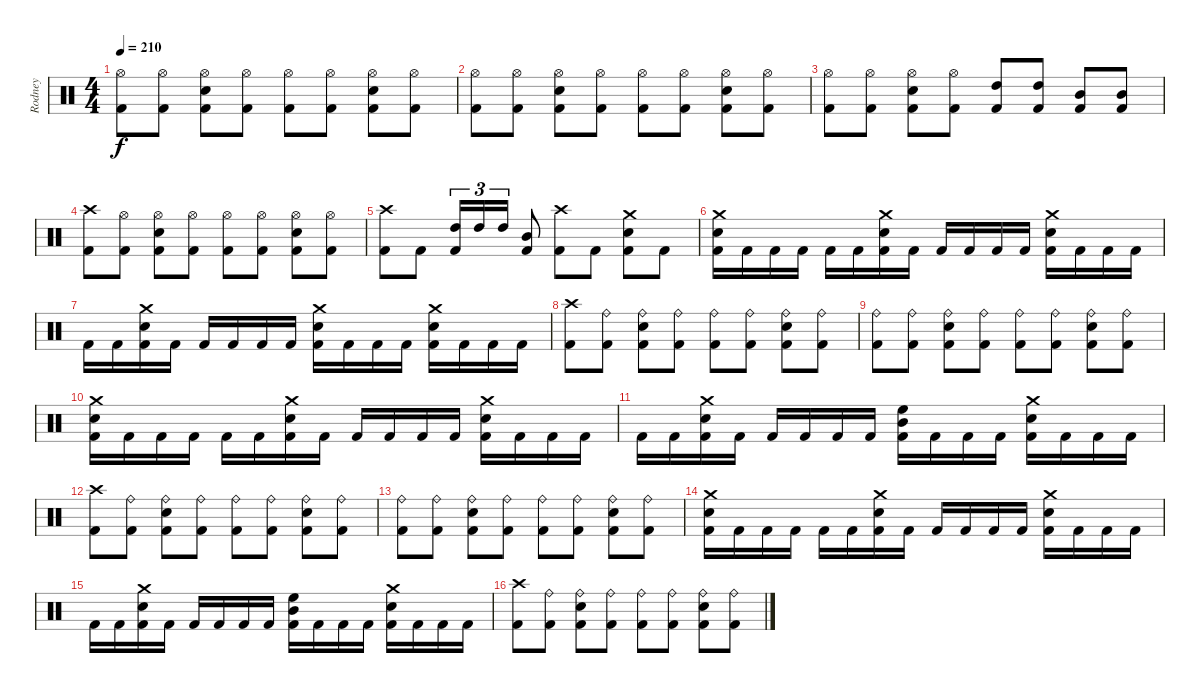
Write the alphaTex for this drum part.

\track ("Rodney" "Rodney") {instrument percussion}
\staff {score}
\articulation defaults
\ts (4 4)
\tempo 210
\clef neutral
\ks c
("Hi-Hat (open)" "Kick (hit) 2").8{dy f} ("Hi-Hat (open)" "Kick (hit) 2").8 ("Hi-Hat (open)" "Snare (hit) 2" "Kick (hit) 2").8 ("Hi-Hat (open)" "Kick (hit) 2").8 ("Hi-Hat (open)" "Kick (hit) 2").8 ("Hi-Hat (open)" "Kick (hit) 2").8 ("Hi-Hat (open)" "Snare (hit) 2" "Kick (hit) 2").8 ("Hi-Hat (open)" "Kick (hit) 2").8 |
("Hi-Hat (open)" "Kick (hit) 2").8 ("Hi-Hat (open)" "Kick (hit) 2").8 ("Hi-Hat (open)" "Snare (hit) 2" "Kick (hit) 2").8 ("Hi-Hat (open)" "Kick (hit) 2").8 ("Hi-Hat (open)" "Kick (hit) 2").8 ("Hi-Hat (open)" "Kick (hit) 2").8 ("Hi-Hat (open)" "Snare (hit) 2" "Kick (hit) 2").8 ("Hi-Hat (open)" "Kick (hit) 2").8 |
("Hi-Hat (open)" "Kick (hit) 2").8 ("Hi-Hat (open)" "Kick (hit) 2").8 ("Hi-Hat (open)" "Snare (hit) 2" "Kick (hit) 2").8 ("Hi-Hat (open)" "Kick (hit) 2").8 ("High Tom (hit)" "Kick (hit) 2").8 ("High Tom (hit)" "Kick (hit) 2").8 ("Mid Tom (hit)" "Kick (hit) 2").8 ("Mid Tom (hit)" "Kick (hit) 2").8 |
("Crash high (hit)" "Kick (hit) 2").8 ("Hi-Hat (open)" "Kick (hit) 2").8 ("Hi-Hat (open)" "Snare (hit) 2" "Kick (hit) 2").8 ("Hi-Hat (open)" "Kick (hit) 2").8 ("Hi-Hat (open)" "Kick (hit) 2").8 ("Hi-Hat (open)" "Kick (hit) 2").8 ("Hi-Hat (open)" "Snare (hit) 2" "Kick (hit) 2").8 ("Hi-Hat (open)" "Kick (hit) 2").8 |
("Crash high (hit)" "Kick (hit) 2").8 "Kick (hit) 2".8 ("High Tom (hit)" "Kick (hit) 2").16{tu (3 2)} "High Tom (hit)".16{tu (3 2)} "High Tom (hit)".16{tu (3 2)} ("Mid Tom (hit)" "Kick (hit) 2").8 ("Crash high (hit)" "Kick (hit) 2").8 "Kick (hit) 2".8 ("Crash medium (hit)" "Snare (hit) 2" "Kick (hit) 2").8 "Kick (hit) 2".8 |
("Crash medium (hit)" "Snare (hit) 2" "Kick (hit) 2").16 "Kick (hit) 2".16 "Kick (hit) 2".16 "Kick (hit) 2".16 "Kick (hit) 2".16 "Kick (hit) 2".16 ("Crash medium (hit)" "Snare (hit) 2" "Kick (hit) 2").16 "Kick (hit) 2".16 "Kick (hit) 2".16 "Kick (hit) 2".16 "Kick (hit) 2".16 "Kick (hit) 2".16 ("Crash medium (hit)" "Snare (hit) 2" "Kick (hit) 2").16 "Kick (hit) 2".16 "Kick (hit) 2".16 "Kick (hit) 2".16 |
"Kick (hit) 2".16 "Kick (hit) 2".16 ("Crash medium (hit)" "Snare (hit) 2" "Kick (hit) 2").16 "Kick (hit) 2".16 "Kick (hit) 2".16 "Kick (hit) 2".16 "Kick (hit) 2".16 "Kick (hit) 2".16 ("Crash medium (hit)" "Snare (hit) 2" "Kick (hit) 2").16 "Kick (hit) 2".16 "Kick (hit) 2".16 "Kick (hit) 2".16 ("Crash medium (hit)" "Snare (hit) 2" "Kick (hit) 2").16 "Kick (hit) 2".16 "Kick (hit) 2".16 "Kick (hit) 2".16 |
("Crash high (hit)" "Kick (hit) 2").8 ("Ride (bell)" "Kick (hit) 2").8 ("Ride (bell)" "Snare (hit) 2" "Kick (hit) 2").8 ("Ride (bell)" "Kick (hit) 2").8 ("Ride (bell)" "Kick (hit) 2").8 ("Ride (bell)" "Kick (hit) 2").8 ("Ride (bell)" "Snare (hit) 2" "Kick (hit) 2").8 ("Ride (bell)" "Kick (hit) 2").8 |
("Ride (bell)" "Kick (hit) 2").8 ("Ride (bell)" "Kick (hit) 2").8 ("Ride (bell)" "Snare (hit) 2" "Kick (hit) 2").8 ("Ride (bell)" "Kick (hit) 2").8 ("Ride (bell)" "Kick (hit) 2").8 ("Ride (bell)" "Kick (hit) 2").8 ("Ride (bell)" "Snare (hit) 2" "Kick (hit) 2").8 ("Ride (bell)" "Kick (hit) 2").8 |
("Crash medium (hit)" "Snare (hit) 2" "Kick (hit) 2").16 "Kick (hit) 2".16 "Kick (hit) 2".16 "Kick (hit) 2".16 "Kick (hit) 2".16 "Kick (hit) 2".16 ("Crash medium (hit)" "Snare (hit) 2" "Kick (hit) 2").16 "Kick (hit) 2".16 "Kick (hit) 2".16 "Kick (hit) 2".16 "Kick (hit) 2".16 "Kick (hit) 2".16 ("Crash medium (hit)" "Snare (hit) 2" "Kick (hit) 2").16 "Kick (hit) 2".16 "Kick (hit) 2".16 "Kick (hit) 2".16 |
"Kick (hit) 2".16 "Kick (hit) 2".16 ("Crash medium (hit)" "Snare (hit) 2" "Kick (hit) 2").16 "Kick (hit) 2".16 "Kick (hit) 2".16 "Kick (hit) 2".16 "Kick (hit) 2".16 "Kick (hit) 2".16 ("High Floor Tom (hit)" "Mid Tom (hit)" "Kick (hit) 2").16 "Kick (hit) 2".16 "Kick (hit) 2".16 "Kick (hit) 2".16 ("Crash medium (hit)" "Snare (hit) 2" "Kick (hit) 2").16 "Kick (hit) 2".16 "Kick (hit) 2".16 "Kick (hit) 2".16 |
("Crash high (hit)" "Kick (hit) 2").8 ("Ride (bell)" "Kick (hit) 2").8 ("Ride (bell)" "Snare (hit) 2" "Kick (hit) 2").8 ("Ride (bell)" "Kick (hit) 2").8 ("Ride (bell)" "Kick (hit) 2").8 ("Ride (bell)" "Kick (hit) 2").8 ("Ride (bell)" "Snare (hit) 2" "Kick (hit) 2").8 ("Ride (bell)" "Kick (hit) 2").8 |
("Ride (bell)" "Kick (hit) 2").8 ("Ride (bell)" "Kick (hit) 2").8 ("Ride (bell)" "Snare (hit) 2" "Kick (hit) 2").8 ("Ride (bell)" "Kick (hit) 2").8 ("Ride (bell)" "Kick (hit) 2").8 ("Ride (bell)" "Kick (hit) 2").8 ("Ride (bell)" "Snare (hit) 2" "Kick (hit) 2").8 ("Ride (bell)" "Kick (hit) 2").8 |
("Crash medium (hit)" "Snare (hit) 2" "Kick (hit) 2").16 "Kick (hit) 2".16 "Kick (hit) 2".16 "Kick (hit) 2".16 "Kick (hit) 2".16 "Kick (hit) 2".16 ("Crash medium (hit)" "Snare (hit) 2" "Kick (hit) 2").16 "Kick (hit) 2".16 "Kick (hit) 2".16 "Kick (hit) 2".16 "Kick (hit) 2".16 "Kick (hit) 2".16 ("Crash medium (hit)" "Snare (hit) 2" "Kick (hit) 2").16 "Kick (hit) 2".16 "Kick (hit) 2".16 "Kick (hit) 2".16 |
"Kick (hit) 2".16 "Kick (hit) 2".16 ("Crash medium (hit)" "Snare (hit) 2" "Kick (hit) 2").16 "Kick (hit) 2".16 "Kick (hit) 2".16 "Kick (hit) 2".16 "Kick (hit) 2".16 "Kick (hit) 2".16 ("High Floor Tom (hit)" "Mid Tom (hit)" "Kick (hit) 2").16 "Kick (hit) 2".16 "Kick (hit) 2".16 "Kick (hit) 2".16 ("Crash medium (hit)" "Snare (hit) 2" "Kick (hit) 2").16 "Kick (hit) 2".16 "Kick (hit) 2".16 "Kick (hit) 2".16 |
("Crash high (hit)" "Kick (hit) 2").8 ("Ride (bell)" "Kick (hit) 2").8 ("Ride (bell)" "Snare (hit) 2" "Kick (hit) 2").8 ("Ride (bell)" "Kick (hit) 2").8 ("Ride (bell)" "Kick (hit) 2").8 ("Ride (bell)" "Kick (hit) 2").8 ("Ride (bell)" "Snare (hit) 2" "Kick (hit) 2").8 ("Ride (bell)" "Kick (hit) 2").8
